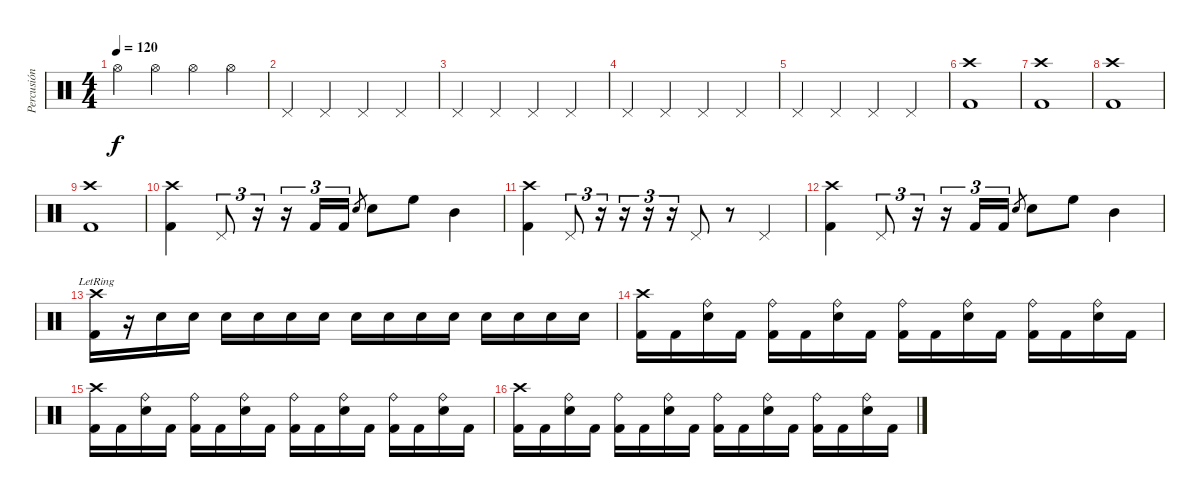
\track ("Percusión" "Percusión") {instrument percussion}
\staff {score}
\articulation defaults
\ts (4 4)
\tempo 120
\clef neutral
\ks c "Hi-Hat (open)".4{dy f} "Hi-Hat (open)".4 "Hi-Hat (open)".4 "Hi-Hat (open)".4
|
"Pedal Hi-Hat (hit)".4 "Pedal Hi-Hat (hit)".4 "Pedal Hi-Hat (hit)".4 "Pedal Hi-Hat (hit)".4 |
"Pedal Hi-Hat (hit)".4 "Pedal Hi-Hat (hit)".4 "Pedal Hi-Hat (hit)".4 "Pedal Hi-Hat (hit)".4 |
"Pedal Hi-Hat (hit)".4 "Pedal Hi-Hat (hit)".4 "Pedal Hi-Hat (hit)".4 "Pedal Hi-Hat (hit)".4 |
"Pedal Hi-Hat (hit)".4 "Pedal Hi-Hat (hit)".4 "Pedal Hi-Hat (hit)".4 "Pedal Hi-Hat (hit)".4 |
("Crash high (hit)" "Kick (hit) 2").1 |
("Crash high (hit)" "Kick (hit) 2").1 |
("Crash high (hit)" "Kick (hit) 2").1 |
("Crash high (hit)" "Kick (hit) 2").1 |
("Crash high (hit)" "Kick (hit) 2").4 "Pedal Hi-Hat (hit)".8{tu (3 2)} r.16{tu (3 2)} r.16{tu (3 2)} "Kick (hit) 2".16{tu (3 2)} "Kick (hit) 2".16{tu (3 2)} "Snare (hit) 2".8{gr} "Snare (hit) 2".8 "High Floor Tom (hit)".8 "Mid Tom (hit)".4 |
("Crash high (hit)" "Kick (hit) 2").4 "Pedal Hi-Hat (hit)".8{tu (3 2)} r.16{tu (3 2)} r.16{tu (3 2)} r.16{tu (3 2)} r.16{tu (3 2)} "Pedal Hi-Hat (hit)".8 r.8 "Pedal Hi-Hat (hit)".4 |
("Crash high (hit)" "Kick (hit) 2").4 "Pedal Hi-Hat (hit)".8{tu (3 2)} r.16{tu (3 2)} r.16{tu (3 2)} "Kick (hit) 2".16{tu (3 2)} "Kick (hit) 2".16{tu (3 2)} "Snare (hit) 2".8{gr} "Snare (hit) 2".8 "High Floor Tom (hit)".8 "Mid Tom (hit)".4 |
("Crash high (hit)"{lr} "Kick (hit) 2").16 r.16 "Electric Snare (hit)".16 "Electric Snare (hit)".16 "Electric Snare (hit)".16 "Electric Snare (hit)".16 "Electric Snare (hit)".16 "Electric Snare (hit)".16 "Electric Snare (hit)".16 "Electric Snare (hit)".16 "Electric Snare (hit)".16 "Electric Snare (hit)".16 "Electric Snare (hit)".16 "Electric Snare (hit)".16 "Electric Snare (hit)".16 "Electric Snare (hit)".16 |
("Crash high (hit)" "Kick (hit) 2").16 "Kick (hit) 2".16 ("Ride (bell)" "Electric Snare (hit)").16 "Kick (hit) 2".16 ("Ride (bell)" "Kick (hit) 2").16 "Kick (hit) 2".16 ("Ride (bell)" "Electric Snare (hit)").16 "Kick (hit) 2".16 ("Ride (bell)" "Kick (hit) 2").16 "Kick (hit) 2".16 ("Ride (bell)" "Electric Snare (hit)").16 "Kick (hit) 2".16 ("Ride (bell)" "Kick (hit) 2").16 "Kick (hit) 2".16 ("Ride (bell)" "Electric Snare (hit)").16 "Kick (hit) 2".16 |
("Crash high (hit)" "Kick (hit) 2").16 "Kick (hit) 2".16 ("Ride (bell)" "Electric Snare (hit)").16 "Kick (hit) 2".16 ("Ride (bell)" "Kick (hit) 2").16 "Kick (hit) 2".16 ("Ride (bell)" "Electric Snare (hit)").16 "Kick (hit) 2".16 ("Ride (bell)" "Kick (hit) 2").16 "Kick (hit) 2".16 ("Ride (bell)" "Electric Snare (hit)").16 "Kick (hit) 2".16 ("Ride (bell)" "Kick (hit) 2").16 "Kick (hit) 2".16 ("Ride (bell)" "Electric Snare (hit)").16 "Kick (hit) 2".16 |
("Crash high (hit)" "Kick (hit) 2").16 "Kick (hit) 2".16 ("Ride (bell)" "Electric Snare (hit)").16 "Kick (hit) 2".16 ("Ride (bell)" "Kick (hit) 2").16 "Kick (hit) 2".16 ("Ride (bell)" "Electric Snare (hit)").16 "Kick (hit) 2".16 ("Ride (bell)" "Kick (hit) 2").16 "Kick (hit) 2".16 ("Ride (bell)" "Electric Snare (hit)").16 "Kick (hit) 2".16 ("Ride (bell)" "Kick (hit) 2").16 "Kick (hit) 2".16 ("Ride (bell)" "Electric Snare (hit)").16 "Kick (hit) 2".16
